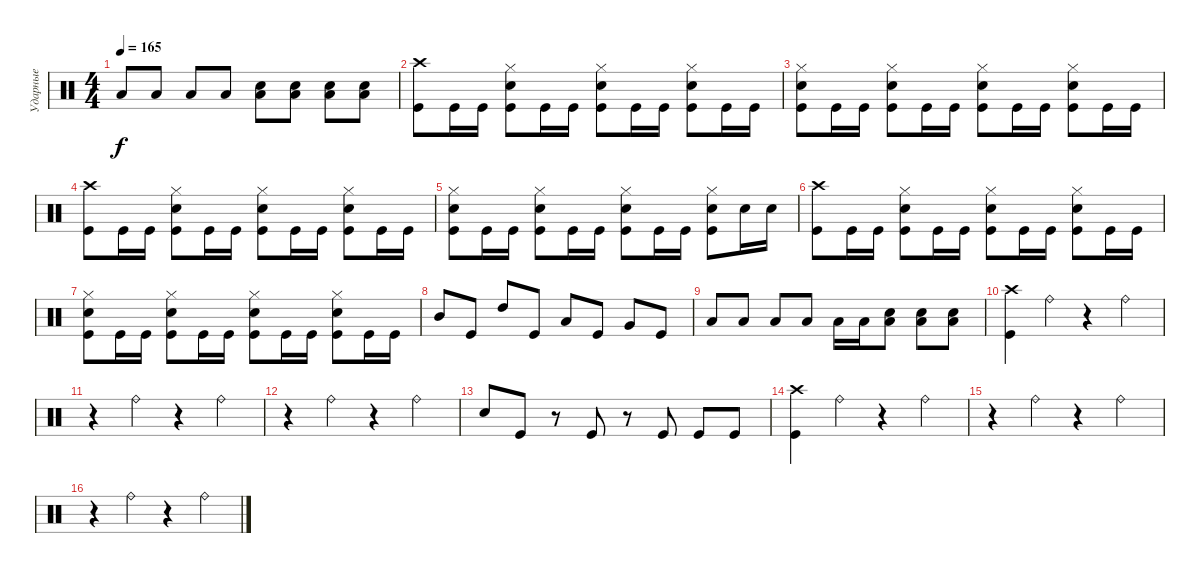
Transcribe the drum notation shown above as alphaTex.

\track ("Ударные" "Ударные") {instrument percussion}
\staff {score}
\articulation defaults
\ts (4 4)
\tempo 165
\clef neutral
\ks c "Low Tom (hit)".8{dy f} "Low Tom (hit)".8 "Low Tom (hit)".8 "Low Tom (hit)".8
("Electric Snare (hit)" "Low Tom (hit)").8 ("Electric Snare (hit)" "Low Tom (hit)").8 ("Electric Snare (hit)" "Low Tom (hit)").8 ("Electric Snare (hit)" "Low Tom (hit)").8 |
("Crash high (hit)" "Kick (hit)").8 "Kick (hit)".16 "Kick (hit)".16 ("Hi-Hat (closed)" "Electric Snare (hit)" "Kick (hit)").8 "Kick (hit)".16 "Kick (hit)".16 ("Hi-Hat (closed)" "Electric Snare (hit)" "Kick (hit)").8 "Kick (hit)".16 "Kick (hit)".16 ("Hi-Hat (closed)" "Electric Snare (hit)" "Kick (hit)").8 "Kick (hit)".16 "Kick (hit)".16 |
("Hi-Hat (closed)" "Electric Snare (hit)" "Kick (hit)").8 "Kick (hit)".16 "Kick (hit)".16 ("Hi-Hat (closed)" "Electric Snare (hit)" "Kick (hit)").8 "Kick (hit)".16 "Kick (hit)".16 ("Hi-Hat (closed)" "Electric Snare (hit)" "Kick (hit)").8 "Kick (hit)".16 "Kick (hit)".16 ("Hi-Hat (closed)" "Electric Snare (hit)" "Kick (hit)").8 "Kick (hit)".16 "Kick (hit)".16 |
("Crash high (hit)" "Kick (hit)").8 "Kick (hit)".16 "Kick (hit)".16 ("Hi-Hat (closed)" "Electric Snare (hit)" "Kick (hit)").8 "Kick (hit)".16 "Kick (hit)".16 ("Hi-Hat (closed)" "Electric Snare (hit)" "Kick (hit)").8 "Kick (hit)".16 "Kick (hit)".16 ("Hi-Hat (closed)" "Electric Snare (hit)" "Kick (hit)").8 "Kick (hit)".16 "Kick (hit)".16 |
("Hi-Hat (closed)" "Electric Snare (hit)" "Kick (hit)").8 "Kick (hit)".16 "Kick (hit)".16 ("Hi-Hat (closed)" "Electric Snare (hit)" "Kick (hit)").8 "Kick (hit)".16 "Kick (hit)".16 ("Hi-Hat (closed)" "Electric Snare (hit)" "Kick (hit)").8 "Kick (hit)".16 "Kick (hit)".16 ("Hi-Hat (closed)" "Electric Snare (hit)" "Kick (hit)").8 "Electric Snare (hit)".16 "Electric Snare (hit)".16 |
("Crash high (hit)" "Kick (hit)").8 "Kick (hit)".16 "Kick (hit)".16 ("Hi-Hat (closed)" "Electric Snare (hit)" "Kick (hit)").8 "Kick (hit)".16 "Kick (hit)".16 ("Hi-Hat (closed)" "Electric Snare (hit)" "Kick (hit)").8 "Kick (hit)".16 "Kick (hit)".16 ("Hi-Hat (closed)" "Electric Snare (hit)" "Kick (hit)").8 "Kick (hit)".16 "Kick (hit)".16 |
("Hi-Hat (closed)" "Electric Snare (hit)" "Kick (hit)").8 "Kick (hit)".16 "Kick (hit)".16 ("Hi-Hat (closed)" "Electric Snare (hit)" "Kick (hit)").8 "Kick (hit)".16 "Kick (hit)".16 ("Hi-Hat (closed)" "Electric Snare (hit)" "Kick (hit)").8 "Kick (hit)".16 "Kick (hit)".16 ("Hi-Hat (closed)" "Electric Snare (hit)" "Kick (hit)").8 "Kick (hit)".16 "Kick (hit)".16 |
"Mid Tom (hit)".8 "Kick (hit)".8 "High Tom (hit)".8 "Kick (hit)".8 "Low Tom (hit)".8 "Kick (hit)".8 "Very Low Tom (hit)".8 "Kick (hit)".8 |
"Low Tom (hit)".8 "Low Tom (hit)".8 "Low Tom (hit)".8 "Low Tom (hit)".8 "Low Tom (hit)".16 "Low Tom (hit)".16 ("Electric Snare (hit)" "Low Tom (hit)").8 ("Electric Snare (hit)" "Low Tom (hit)").8 ("Electric Snare (hit)" "Low Tom (hit)").8 |
("Crash high (hit)" "Kick (hit)").4 "Ride (bell)".4 r.4 "Ride (bell)".4 |
r.4 "Ride (bell)".4 r.4 "Ride (bell)".4 |
r.4 "Ride (bell)".4 r.4 "Ride (bell)".4 |
"Electric Snare (hit)".8 "Kick (hit)".8 r.8 "Kick (hit)".8 r.8 "Kick (hit)".8 "Kick (hit)".8 "Kick (hit)".8 |
("Crash high (hit)" "Kick (hit)").4 "Ride (bell)".4 r.4 "Ride (bell)".4 |
r.4 "Ride (bell)".4 r.4 "Ride (bell)".4 |
r.4 "Ride (bell)".4 r.4 "Ride (bell)".4
